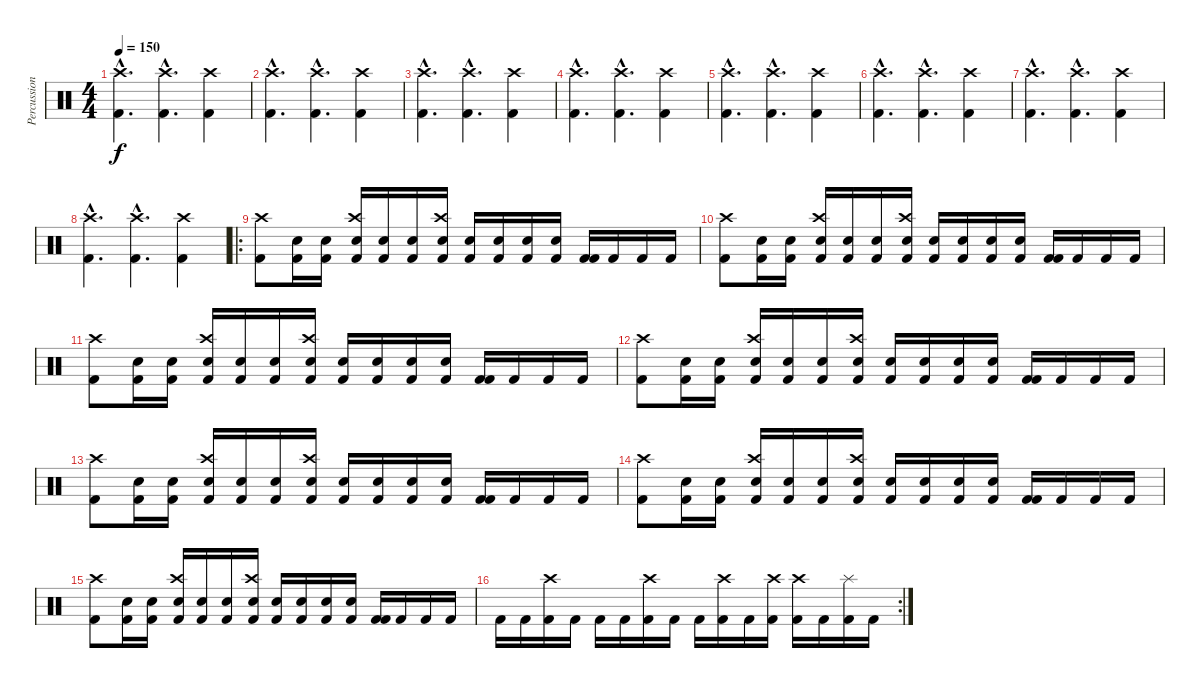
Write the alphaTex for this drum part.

\track ("Percussion" "Percussion") {instrument percussion}
\staff {score}
\articulation defaults
\ts (4 4)
\tempo 150
\clef neutral
\ks c
("Kick (hit) 2"{hac} "Crash high (hit)"{hac}).4{d dy f} ("Kick (hit) 2"{hac} "Crash high (hit)"{hac}).4{d} ("Kick (hit) 2" "Crash high (hit)").4 |
("Kick (hit) 2"{hac} "Crash high (hit)"{hac}).4{d} ("Kick (hit) 2"{hac} "Crash high (hit)"{hac}).4{d} ("Kick (hit) 2" "Crash high (hit)").4 |
("Kick (hit) 2"{hac} "Crash high (hit)"{hac}).4{d} ("Kick (hit) 2"{hac} "Crash high (hit)"{hac}).4{d} ("Kick (hit) 2" "Crash high (hit)").4 |
("Kick (hit) 2"{hac} "Crash high (hit)"{hac}).4{d} ("Kick (hit) 2"{hac} "Crash high (hit)"{hac}).4{d} ("Kick (hit) 2" "Crash high (hit)").4 |
("Kick (hit) 2"{hac} "Crash high (hit)"{hac}).4{d} ("Kick (hit) 2"{hac} "Crash high (hit)"{hac}).4{d} ("Kick (hit) 2" "Crash high (hit)").4 |
("Kick (hit) 2"{hac} "Crash high (hit)"{hac}).4{d} ("Kick (hit) 2"{hac} "Crash high (hit)"{hac}).4{d} ("Kick (hit) 2" "Crash high (hit)").4 |
("Kick (hit) 2"{hac} "Crash high (hit)"{hac}).4{d} ("Kick (hit) 2"{hac} "Crash high (hit)"{hac}).4{d} ("Kick (hit) 2" "Crash high (hit)").4 |
("Kick (hit) 2"{hac} "Crash high (hit)"{hac}).4{d} ("Kick (hit) 2"{hac} "Crash high (hit)"{hac}).4{d} ("Kick (hit) 2" "Crash high (hit)").4 |
\ro
("Kick (hit) 2" "Crash high (hit)").8 ("Kick (hit) 2" "Snare (hit) 2").16 ("Snare (hit) 2" "Kick (hit) 2").16 ("Kick (hit) 2" "Snare (hit) 2" "Crash high (hit)").16 ("Snare (hit) 2" "Kick (hit) 2").16 ("Kick (hit) 2" "Snare (hit) 2").16 ("Snare (hit) 2" "Kick (hit) 2" "Crash high (hit)").16 ("Kick (hit) 2" "Snare (hit) 2").16 ("Kick (hit) 2" "Snare (hit) 2").16 ("Kick (hit) 2" "Snare (hit) 2").16 ("Kick (hit) 2" "Snare (hit) 2").16 ("Kick (hit) 2" "Kick (hit) 2").16 "Kick (hit) 2".16 "Kick (hit) 2".16 "Kick (hit) 2".16 |
("Kick (hit) 2" "Crash high (hit)").8 ("Kick (hit) 2" "Snare (hit) 2").16 ("Snare (hit) 2" "Kick (hit) 2").16 ("Kick (hit) 2" "Snare (hit) 2" "Crash high (hit)").16 ("Snare (hit) 2" "Kick (hit) 2").16 ("Kick (hit) 2" "Snare (hit) 2").16 ("Snare (hit) 2" "Kick (hit) 2" "Crash high (hit)").16 ("Kick (hit) 2" "Snare (hit) 2").16 ("Kick (hit) 2" "Snare (hit) 2").16 ("Kick (hit) 2" "Snare (hit) 2").16 ("Kick (hit) 2" "Snare (hit) 2").16 ("Kick (hit) 2" "Kick (hit) 2").16 "Kick (hit) 2".16 "Kick (hit) 2".16 "Kick (hit) 2".16 |
("Kick (hit) 2" "Crash high (hit)").8 ("Kick (hit) 2" "Snare (hit) 2").16 ("Snare (hit) 2" "Kick (hit) 2").16 ("Kick (hit) 2" "Snare (hit) 2" "Crash high (hit)").16 ("Snare (hit) 2" "Kick (hit) 2").16 ("Kick (hit) 2" "Snare (hit) 2").16 ("Snare (hit) 2" "Kick (hit) 2" "Crash high (hit)").16 ("Kick (hit) 2" "Snare (hit) 2").16 ("Kick (hit) 2" "Snare (hit) 2").16 ("Kick (hit) 2" "Snare (hit) 2").16 ("Kick (hit) 2" "Snare (hit) 2").16 ("Kick (hit) 2" "Kick (hit) 2").16 "Kick (hit) 2".16 "Kick (hit) 2".16 "Kick (hit) 2".16 |
("Kick (hit) 2" "Crash high (hit)").8 ("Kick (hit) 2" "Snare (hit) 2").16 ("Snare (hit) 2" "Kick (hit) 2").16 ("Kick (hit) 2" "Snare (hit) 2" "Crash high (hit)").16 ("Snare (hit) 2" "Kick (hit) 2").16 ("Kick (hit) 2" "Snare (hit) 2").16 ("Snare (hit) 2" "Kick (hit) 2" "Crash high (hit)").16 ("Kick (hit) 2" "Snare (hit) 2").16 ("Kick (hit) 2" "Snare (hit) 2").16 ("Kick (hit) 2" "Snare (hit) 2").16 ("Kick (hit) 2" "Snare (hit) 2").16 ("Kick (hit) 2" "Kick (hit) 2").16 "Kick (hit) 2".16 "Kick (hit) 2".16 "Kick (hit) 2".16 |
("Kick (hit) 2" "Crash high (hit)").8 ("Kick (hit) 2" "Snare (hit) 2").16 ("Snare (hit) 2" "Kick (hit) 2").16 ("Kick (hit) 2" "Snare (hit) 2" "Crash high (hit)").16 ("Snare (hit) 2" "Kick (hit) 2").16 ("Kick (hit) 2" "Snare (hit) 2").16 ("Snare (hit) 2" "Kick (hit) 2" "Crash high (hit)").16 ("Kick (hit) 2" "Snare (hit) 2").16 ("Kick (hit) 2" "Snare (hit) 2").16 ("Kick (hit) 2" "Snare (hit) 2").16 ("Kick (hit) 2" "Snare (hit) 2").16 ("Kick (hit) 2" "Kick (hit) 2").16 "Kick (hit) 2".16 "Kick (hit) 2".16 "Kick (hit) 2".16 |
("Kick (hit) 2" "Crash high (hit)").8 ("Kick (hit) 2" "Snare (hit) 2").16 ("Snare (hit) 2" "Kick (hit) 2").16 ("Kick (hit) 2" "Snare (hit) 2" "Crash high (hit)").16 ("Snare (hit) 2" "Kick (hit) 2").16 ("Kick (hit) 2" "Snare (hit) 2").16 ("Snare (hit) 2" "Kick (hit) 2" "Crash high (hit)").16 ("Kick (hit) 2" "Snare (hit) 2").16 ("Kick (hit) 2" "Snare (hit) 2").16 ("Kick (hit) 2" "Snare (hit) 2").16 ("Kick (hit) 2" "Snare (hit) 2").16 ("Kick (hit) 2" "Kick (hit) 2").16 "Kick (hit) 2".16 "Kick (hit) 2".16 "Kick (hit) 2".16 |
("Kick (hit) 2" "Crash high (hit)").8 ("Kick (hit) 2" "Snare (hit) 2").16 ("Snare (hit) 2" "Kick (hit) 2").16 ("Kick (hit) 2" "Snare (hit) 2" "Crash high (hit)").16 ("Snare (hit) 2" "Kick (hit) 2").16 ("Kick (hit) 2" "Snare (hit) 2").16 ("Snare (hit) 2" "Kick (hit) 2" "Crash high (hit)").16 ("Kick (hit) 2" "Snare (hit) 2").16 ("Kick (hit) 2" "Snare (hit) 2").16 ("Kick (hit) 2" "Snare (hit) 2").16 ("Kick (hit) 2" "Snare (hit) 2").16 ("Kick (hit) 2" "Kick (hit) 2").16 "Kick (hit) 2".16 "Kick (hit) 2".16 "Kick (hit) 2".16 |
\rc 2 "Kick (hit) 2".16 "Kick (hit) 2".16
("Crash high (hit)" "Kick (hit) 2").16 "Kick (hit) 2".16 "Kick (hit) 2".16 "Kick (hit) 2".16 ("Crash high (hit)" "Kick (hit) 2").16 "Kick (hit) 2".16 "Kick (hit) 2".16 ("Crash high (hit)" "Kick (hit) 2").16 "Kick (hit) 2".16 ("Crash high (hit)" "Kick (hit) 2").16 ("Crash high (hit)" "Kick (hit) 2").16 "Kick (hit) 2".16 ("Splash (hit)" "Kick (hit) 2").16 "Kick (hit) 2".16
